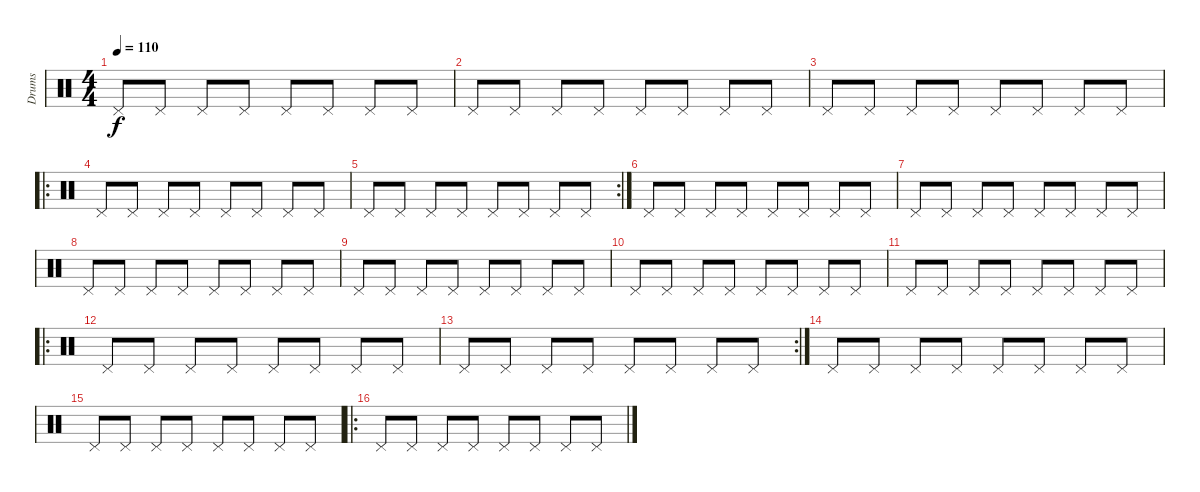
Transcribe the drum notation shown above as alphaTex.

\track ("Drums" "Drums") {instrument percussion}
\staff {score}
\articulation defaults
\ts (4 4)
\tempo 110
\clef neutral
\ks c "Pedal Hi-Hat (hit)".8{dy f} "Pedal Hi-Hat (hit)".8 "Pedal Hi-Hat (hit)".8 "Pedal Hi-Hat (hit)".8 "Pedal Hi-Hat (hit)".8 "Pedal Hi-Hat (hit)".8 "Pedal Hi-Hat (hit)".8 "Pedal Hi-Hat (hit)".8
|
"Pedal Hi-Hat (hit)".8 "Pedal Hi-Hat (hit)".8 "Pedal Hi-Hat (hit)".8 "Pedal Hi-Hat (hit)".8 "Pedal Hi-Hat (hit)".8 "Pedal Hi-Hat (hit)".8 "Pedal Hi-Hat (hit)".8 "Pedal Hi-Hat (hit)".8 |
"Pedal Hi-Hat (hit)".8 "Pedal Hi-Hat (hit)".8 "Pedal Hi-Hat (hit)".8 "Pedal Hi-Hat (hit)".8 "Pedal Hi-Hat (hit)".8 "Pedal Hi-Hat (hit)".8 "Pedal Hi-Hat (hit)".8 "Pedal Hi-Hat (hit)".8 |
\ro "Pedal Hi-Hat (hit)".8 "Pedal Hi-Hat (hit)".8 "Pedal Hi-Hat (hit)".8 "Pedal Hi-Hat (hit)".8 "Pedal Hi-Hat (hit)".8 "Pedal Hi-Hat (hit)".8 "Pedal Hi-Hat (hit)".8 "Pedal Hi-Hat (hit)".8
|
\rc 2 "Pedal Hi-Hat (hit)".8 "Pedal Hi-Hat (hit)".8 "Pedal Hi-Hat (hit)".8 "Pedal Hi-Hat (hit)".8 "Pedal Hi-Hat (hit)".8 "Pedal Hi-Hat (hit)".8 "Pedal Hi-Hat (hit)".8 "Pedal Hi-Hat (hit)".8
|
"Pedal Hi-Hat (hit)".8 "Pedal Hi-Hat (hit)".8 "Pedal Hi-Hat (hit)".8 "Pedal Hi-Hat (hit)".8 "Pedal Hi-Hat (hit)".8 "Pedal Hi-Hat (hit)".8 "Pedal Hi-Hat (hit)".8 "Pedal Hi-Hat (hit)".8 |
"Pedal Hi-Hat (hit)".8 "Pedal Hi-Hat (hit)".8 "Pedal Hi-Hat (hit)".8 "Pedal Hi-Hat (hit)".8 "Pedal Hi-Hat (hit)".8 "Pedal Hi-Hat (hit)".8 "Pedal Hi-Hat (hit)".8 "Pedal Hi-Hat (hit)".8 |
"Pedal Hi-Hat (hit)".8 "Pedal Hi-Hat (hit)".8 "Pedal Hi-Hat (hit)".8 "Pedal Hi-Hat (hit)".8 "Pedal Hi-Hat (hit)".8 "Pedal Hi-Hat (hit)".8 "Pedal Hi-Hat (hit)".8 "Pedal Hi-Hat (hit)".8 |
"Pedal Hi-Hat (hit)".8 "Pedal Hi-Hat (hit)".8 "Pedal Hi-Hat (hit)".8 "Pedal Hi-Hat (hit)".8 "Pedal Hi-Hat (hit)".8 "Pedal Hi-Hat (hit)".8 "Pedal Hi-Hat (hit)".8 "Pedal Hi-Hat (hit)".8 |
"Pedal Hi-Hat (hit)".8 "Pedal Hi-Hat (hit)".8 "Pedal Hi-Hat (hit)".8 "Pedal Hi-Hat (hit)".8 "Pedal Hi-Hat (hit)".8 "Pedal Hi-Hat (hit)".8 "Pedal Hi-Hat (hit)".8 "Pedal Hi-Hat (hit)".8 |
"Pedal Hi-Hat (hit)".8 "Pedal Hi-Hat (hit)".8 "Pedal Hi-Hat (hit)".8 "Pedal Hi-Hat (hit)".8 "Pedal Hi-Hat (hit)".8 "Pedal Hi-Hat (hit)".8 "Pedal Hi-Hat (hit)".8 "Pedal Hi-Hat (hit)".8 |
\ro "Pedal Hi-Hat (hit)".8 "Pedal Hi-Hat (hit)".8 "Pedal Hi-Hat (hit)".8 "Pedal Hi-Hat (hit)".8 "Pedal Hi-Hat (hit)".8 "Pedal Hi-Hat (hit)".8 "Pedal Hi-Hat (hit)".8 "Pedal Hi-Hat (hit)".8
|
\rc 2 "Pedal Hi-Hat (hit)".8 "Pedal Hi-Hat (hit)".8 "Pedal Hi-Hat (hit)".8 "Pedal Hi-Hat (hit)".8 "Pedal Hi-Hat (hit)".8 "Pedal Hi-Hat (hit)".8 "Pedal Hi-Hat (hit)".8 "Pedal Hi-Hat (hit)".8
|
"Pedal Hi-Hat (hit)".8 "Pedal Hi-Hat (hit)".8 "Pedal Hi-Hat (hit)".8 "Pedal Hi-Hat (hit)".8 "Pedal Hi-Hat (hit)".8 "Pedal Hi-Hat (hit)".8 "Pedal Hi-Hat (hit)".8 "Pedal Hi-Hat (hit)".8 |
"Pedal Hi-Hat (hit)".8 "Pedal Hi-Hat (hit)".8 "Pedal Hi-Hat (hit)".8 "Pedal Hi-Hat (hit)".8 "Pedal Hi-Hat (hit)".8 "Pedal Hi-Hat (hit)".8 "Pedal Hi-Hat (hit)".8 "Pedal Hi-Hat (hit)".8 |
\ro "Pedal Hi-Hat (hit)".8 "Pedal Hi-Hat (hit)".8 "Pedal Hi-Hat (hit)".8 "Pedal Hi-Hat (hit)".8 "Pedal Hi-Hat (hit)".8 "Pedal Hi-Hat (hit)".8 "Pedal Hi-Hat (hit)".8 "Pedal Hi-Hat (hit)".8
